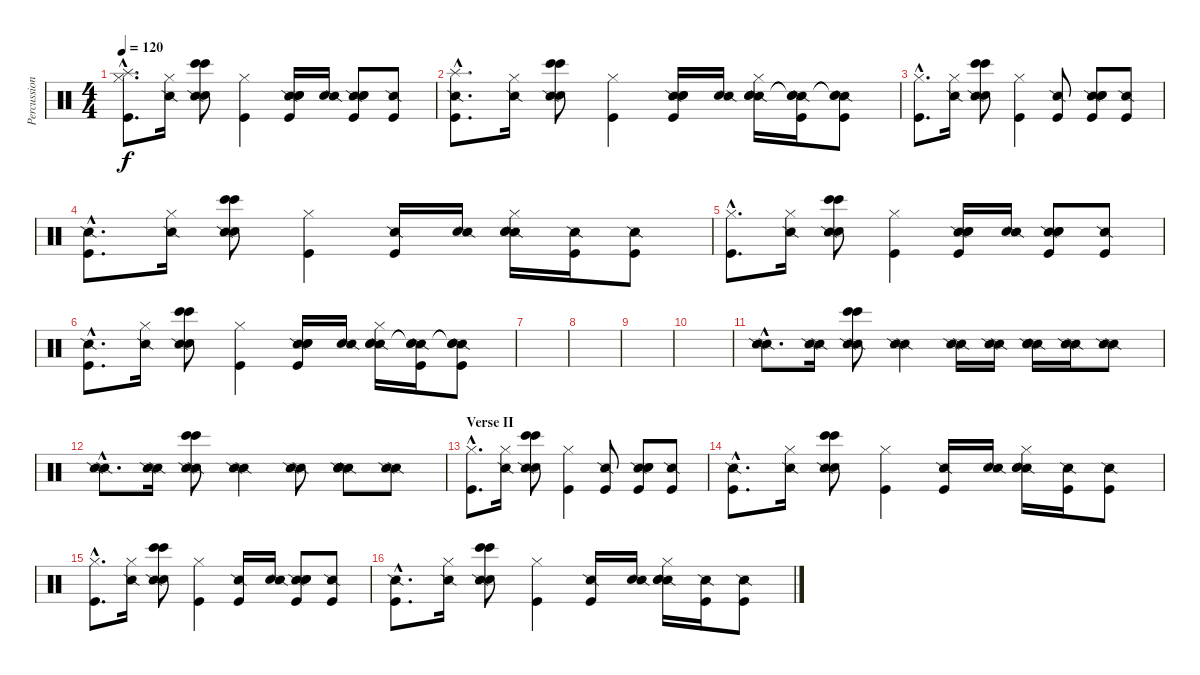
\track ("Percussion" "Percussion") {instrument percussion}
\staff {score}
\articulation defaults
\ts (4 4)
\tempo 120
\clef neutral
\ks c
("Kick (hit)"{hac} "Hi-Hat (closed)"{hac} "Splash (hit)"{hac}).8{d dy f} ("Hi-Hat (closed)" "Snare (side stick) 2").16 ("Snare (hit) 2" "Snare (side stick) 2" "Bongo High (hit)" "Bongo High (hit)").8 ("Kick (hit)" "Hi-Hat (closed)").4 ("Kick (hit)" "Snare (side stick) 2" "Electric Snare (hit)" "Electric Snare (hit)").16 ("Snare (hit) 2" "Snare (side stick) 2").16 ("Kick (hit)" "Snare (side stick) 2" "Electric Snare (hit)" "Electric Snare (hit)").8 ("Kick (hit)" "Snare (side stick) 2").8 |
("Kick (hit)"{hac} "Snare (side stick) 2"{hac} "Splash (hit)"{hac}).8{d} ("Hi-Hat (closed)" "Snare (side stick) 2").16 ("Snare (hit) 2" "Snare (side stick) 2" "Bongo High (hit)" "Bongo High (hit)").8 ("Kick (hit)" "Hi-Hat (closed)").4 ("Kick (hit)" "Snare (side stick) 2" "Electric Snare (hit)" "Electric Snare (hit)").16 ("Snare (hit) 2" "Snare (side stick) 2").16 ("Hi-Hat (closed)" "Snare (side stick) 2" "Electric Snare (hit)" "Electric Snare (hit)").16 ("Kick (hit)" "Snare (side stick) 2" "Snare (hit)"{t} "Snare (hit)"{t}).16 ("Kick (hit)" "Snare (side stick) 2" "Snare (hit)"{t} "Snare (hit)"{t}).8 |
("Kick (hit)"{hac} "Hi-Hat (closed)"{hac}).8{d} ("Hi-Hat (closed)" "Snare (side stick) 2").16 ("Snare (hit) 2" "Snare (side stick) 2" "Bongo High (hit)" "Bongo High (hit)").8 ("Kick (hit)" "Hi-Hat (closed)").4 ("Kick (hit)" "Snare (side stick) 2").8 ("Kick (hit)" "Snare (side stick) 2" "Electric Snare (hit)" "Electric Snare (hit)").8 ("Kick (hit)" "Snare (side stick) 2").8 |
("Kick (hit)"{hac} "Snare (side stick) 2"{hac}).8{d} ("Hi-Hat (closed)" "Snare (side stick) 2").16 ("Snare (hit) 2" "Snare (side stick) 2" "Bongo High (hit)" "Bongo High (hit)").8 ("Kick (hit)" "Hi-Hat (closed)").4 ("Kick (hit)" "Snare (side stick) 2").16 ("Snare (hit) 2" "Snare (side stick) 2").16 ("Hi-Hat (closed)" "Snare (side stick) 2" "Electric Snare (hit)" "Electric Snare (hit)").16 ("Kick (hit)" "Snare (side stick) 2").16 ("Kick (hit)" "Snare (side stick) 2").8 |
("Kick (hit)"{hac} "Hi-Hat (closed)"{hac}).8{d} ("Hi-Hat (closed)" "Snare (side stick) 2").16 ("Snare (hit) 2" "Snare (side stick) 2" "Bongo High (hit)" "Bongo High (hit)").8 ("Kick (hit)" "Hi-Hat (closed)").4 ("Kick (hit)" "Snare (side stick) 2" "Electric Snare (hit)" "Electric Snare (hit)").16 ("Snare (hit) 2" "Snare (side stick) 2").16 ("Kick (hit)" "Snare (side stick) 2" "Electric Snare (hit)" "Electric Snare (hit)").8 ("Kick (hit)" "Snare (side stick) 2").8 |
("Kick (hit)"{hac} "Snare (side stick) 2"{hac}).8{d} ("Hi-Hat (closed)" "Snare (side stick) 2").16 ("Snare (hit) 2" "Snare (side stick) 2" "Bongo High (hit)" "Bongo High (hit)").8 ("Kick (hit)" "Hi-Hat (closed)").4 ("Kick (hit)" "Snare (side stick) 2" "Electric Snare (hit)" "Electric Snare (hit)").16 ("Snare (hit) 2" "Snare (side stick) 2").16 ("Hi-Hat (closed)" "Snare (side stick) 2" "Electric Snare (hit)" "Electric Snare (hit)").16 ("Kick (hit)" "Snare (side stick) 2" "Snare (hit)"{t} "Snare (hit)"{t}).16 ("Kick (hit)" "Snare (side stick) 2" "Snare (hit)"{t} "Snare (hit)"{t}).8 |
|
|
|
|
("Snare (side stick) 2"{hac} "Snare (side stick) 2"{hac}).8{d} ("Snare (side stick) 2" "Snare (side stick) 2").16 ("Snare (side stick) 2" "Snare (side stick) 2" "Bongo High (hit)" "Bongo High (hit)").8 ("Snare (side stick) 2" "Snare (side stick) 2").4 ("Snare (side stick) 2" "Snare (side stick) 2").16 ("Snare (side stick) 2" "Snare (side stick) 2").16 ("Snare (side stick) 2" "Snare (side stick) 2" "Electric Snare (hit)" "Electric Snare (hit)").16 ("Snare (side stick) 2" "Snare (side stick) 2").16 ("Snare (side stick) 2" "Snare (side stick) 2").8 |
("Snare (side stick) 2"{hac} "Snare (side stick) 2"{hac}).8{d} ("Snare (side stick) 2" "Snare (side stick) 2").16 ("Snare (side stick) 2" "Snare (side stick) 2" "Bongo High (hit)" "Bongo High (hit)").8 ("Snare (side stick) 2" "Snare (side stick) 2").4 ("Snare (side stick) 2" "Snare (side stick) 2").8 ("Snare (side stick) 2" "Snare (side stick) 2" "Electric Snare (hit)" "Electric Snare (hit)").8 ("Snare (side stick) 2" "Snare (side stick) 2").8 |
\section ("" "Verse II")
("Kick (hit)"{hac} "Hi-Hat (closed)"{hac}).8{d} ("Hi-Hat (closed)" "Snare (side stick) 2").16 ("Snare (hit) 2" "Snare (side stick) 2" "Bongo High (hit)" "Bongo High (hit)").8 ("Kick (hit)" "Hi-Hat (closed)").4 ("Kick (hit)" "Snare (side stick) 2").8 ("Kick (hit)" "Snare (side stick) 2" "Electric Snare (hit)" "Electric Snare (hit)").8 ("Kick (hit)" "Snare (side stick) 2").8 |
("Kick (hit)"{hac} "Snare (side stick) 2"{hac}).8{d} ("Hi-Hat (closed)" "Snare (side stick) 2").16 ("Snare (hit) 2" "Snare (side stick) 2" "Bongo High (hit)" "Bongo High (hit)").8 ("Kick (hit)" "Hi-Hat (closed)").4 ("Kick (hit)" "Snare (side stick) 2").16 ("Snare (hit) 2" "Snare (side stick) 2").16 ("Hi-Hat (closed)" "Snare (side stick) 2" "Electric Snare (hit)" "Electric Snare (hit)").16 ("Kick (hit)" "Snare (side stick) 2").16 ("Kick (hit)" "Snare (side stick) 2").8 |
("Kick (hit)"{hac} "Hi-Hat (closed)"{hac}).8{d} ("Hi-Hat (closed)" "Snare (side stick) 2").16 ("Snare (hit) 2" "Snare (side stick) 2" "Bongo High (hit)" "Bongo High (hit)").8 ("Kick (hit)" "Hi-Hat (closed)").4 ("Kick (hit)" "Snare (side stick) 2").16 ("Snare (hit) 2" "Snare (side stick) 2").16 ("Kick (hit)" "Snare (side stick) 2" "Electric Snare (hit)" "Electric Snare (hit)").8 ("Kick (hit)" "Snare (side stick) 2").8 |
("Kick (hit)"{hac} "Snare (side stick) 2"{hac}).8{d} ("Hi-Hat (closed)" "Snare (side stick) 2").16 ("Snare (hit) 2" "Snare (side stick) 2" "Bongo High (hit)" "Bongo High (hit)").8 ("Kick (hit)" "Hi-Hat (closed)").4 ("Kick (hit)" "Snare (side stick) 2").16 ("Snare (hit) 2" "Snare (side stick) 2").16 ("Hi-Hat (closed)" "Snare (side stick) 2" "Electric Snare (hit)" "Electric Snare (hit)").16 ("Kick (hit)" "Snare (side stick) 2").16 ("Kick (hit)" "Snare (side stick) 2").8
